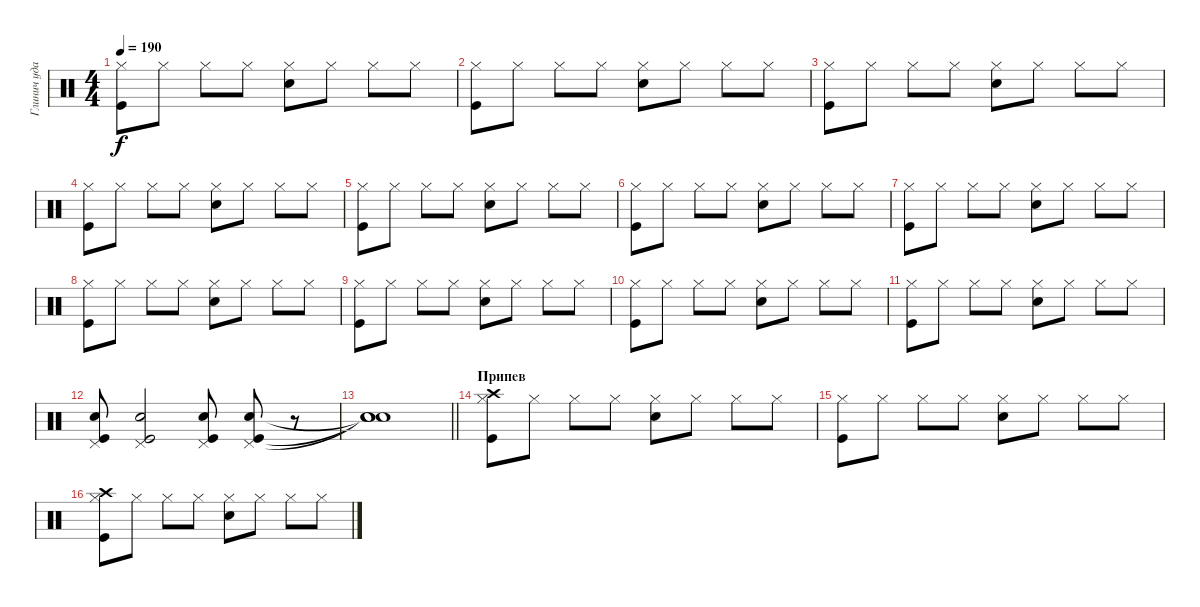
\track ("Глинич ударные" "Глинич уда") {instrument percussion}
\staff {score}
\articulation defaults
\ts (4 4)
\tempo 190
\clef neutral
\ks c
("Hi-Hat (closed)" "Kick (hit)").8{dy f} "Hi-Hat (closed)".8 "Hi-Hat (closed)".8 "Hi-Hat (closed)".8 ("Hi-Hat (closed)" "Snare (hit) 2").8 "Hi-Hat (closed)".8 "Hi-Hat (closed)".8 "Hi-Hat (closed)".8 |
("Hi-Hat (closed)" "Kick (hit)").8 "Hi-Hat (closed)".8 "Hi-Hat (closed)".8 "Hi-Hat (closed)".8 ("Hi-Hat (closed)" "Snare (hit) 2").8 "Hi-Hat (closed)".8 "Hi-Hat (closed)".8 "Hi-Hat (closed)".8 |
("Hi-Hat (closed)" "Kick (hit)").8 "Hi-Hat (closed)".8 "Hi-Hat (closed)".8 "Hi-Hat (closed)".8 ("Hi-Hat (closed)" "Snare (hit) 2").8 "Hi-Hat (closed)".8 "Hi-Hat (closed)".8 "Hi-Hat (closed)".8 |
("Hi-Hat (closed)" "Kick (hit)").8 "Hi-Hat (closed)".8 "Hi-Hat (closed)".8 "Hi-Hat (closed)".8 ("Hi-Hat (closed)" "Snare (hit) 2").8 "Hi-Hat (closed)".8 "Hi-Hat (closed)".8 "Hi-Hat (closed)".8 |
("Hi-Hat (closed)" "Kick (hit)").8 "Hi-Hat (closed)".8 "Hi-Hat (closed)".8 "Hi-Hat (closed)".8 ("Hi-Hat (closed)" "Snare (hit) 2").8 "Hi-Hat (closed)".8 "Hi-Hat (closed)".8 "Hi-Hat (closed)".8 |
("Hi-Hat (closed)" "Kick (hit)").8 "Hi-Hat (closed)".8 "Hi-Hat (closed)".8 "Hi-Hat (closed)".8 ("Hi-Hat (closed)" "Snare (hit) 2").8 "Hi-Hat (closed)".8 "Hi-Hat (closed)".8 "Hi-Hat (closed)".8 |
("Hi-Hat (closed)" "Kick (hit)").8 "Hi-Hat (closed)".8 "Hi-Hat (closed)".8 "Hi-Hat (closed)".8 ("Hi-Hat (closed)" "Snare (hit) 2").8 "Hi-Hat (closed)".8 "Hi-Hat (closed)".8 "Hi-Hat (closed)".8 |
("Hi-Hat (closed)" "Kick (hit)").8 "Hi-Hat (closed)".8 "Hi-Hat (closed)".8 "Hi-Hat (closed)".8 ("Hi-Hat (closed)" "Snare (hit) 2").8 "Hi-Hat (closed)".8 "Hi-Hat (closed)".8 "Hi-Hat (closed)".8 |
("Hi-Hat (closed)" "Kick (hit)").8 "Hi-Hat (closed)".8 "Hi-Hat (closed)".8 "Hi-Hat (closed)".8 ("Hi-Hat (closed)" "Snare (hit) 2").8 "Hi-Hat (closed)".8 "Hi-Hat (closed)".8 "Hi-Hat (closed)".8 |
("Hi-Hat (closed)" "Kick (hit)").8 "Hi-Hat (closed)".8 "Hi-Hat (closed)".8 "Hi-Hat (closed)".8 ("Hi-Hat (closed)" "Snare (hit) 2").8 "Hi-Hat (closed)".8 "Hi-Hat (closed)".8 "Hi-Hat (closed)".8 |
("Hi-Hat (closed)" "Kick (hit)").8 "Hi-Hat (closed)".8 "Hi-Hat (closed)".8 "Hi-Hat (closed)".8 ("Hi-Hat (closed)" "Snare (hit) 2").8 "Hi-Hat (closed)".8 "Hi-Hat (closed)".8 "Hi-Hat (closed)".8 |
("Snare (hit) 2" "Kick (hit)" "Pedal Hi-Hat (hit)").8 ("Snare (hit) 2" "Kick (hit)" "Pedal Hi-Hat (hit)").2 ("Snare (hit) 2" "Kick (hit)" "Pedal Hi-Hat (hit)").8 ("Snare (hit) 2" "Kick (hit)" "Pedal Hi-Hat (hit)").8 r.8 |
\barLineRight lightlight
("Snare (hit)"{t} "Snare (hit)"{t} "Snare (hit)"{t}).1 |
\section ("" "Припев")
("Hi-Hat (closed)" "Kick (hit)" "Crash high (hit)").8 "Hi-Hat (closed)".8 "Hi-Hat (closed)".8 "Hi-Hat (closed)".8 ("Hi-Hat (closed)" "Snare (hit) 2").8 "Hi-Hat (closed)".8 "Hi-Hat (closed)".8 "Hi-Hat (closed)".8 |
("Hi-Hat (closed)" "Kick (hit)").8 "Hi-Hat (closed)".8 "Hi-Hat (closed)".8 "Hi-Hat (closed)".8 ("Hi-Hat (closed)" "Snare (hit) 2").8 "Hi-Hat (closed)".8 "Hi-Hat (closed)".8 "Hi-Hat (closed)".8 |
("Hi-Hat (closed)" "Kick (hit)" "Crash high (hit)").8 "Hi-Hat (closed)".8 "Hi-Hat (closed)".8 "Hi-Hat (closed)".8 ("Hi-Hat (closed)" "Snare (hit) 2").8 "Hi-Hat (closed)".8 "Hi-Hat (closed)".8 "Hi-Hat (closed)".8
